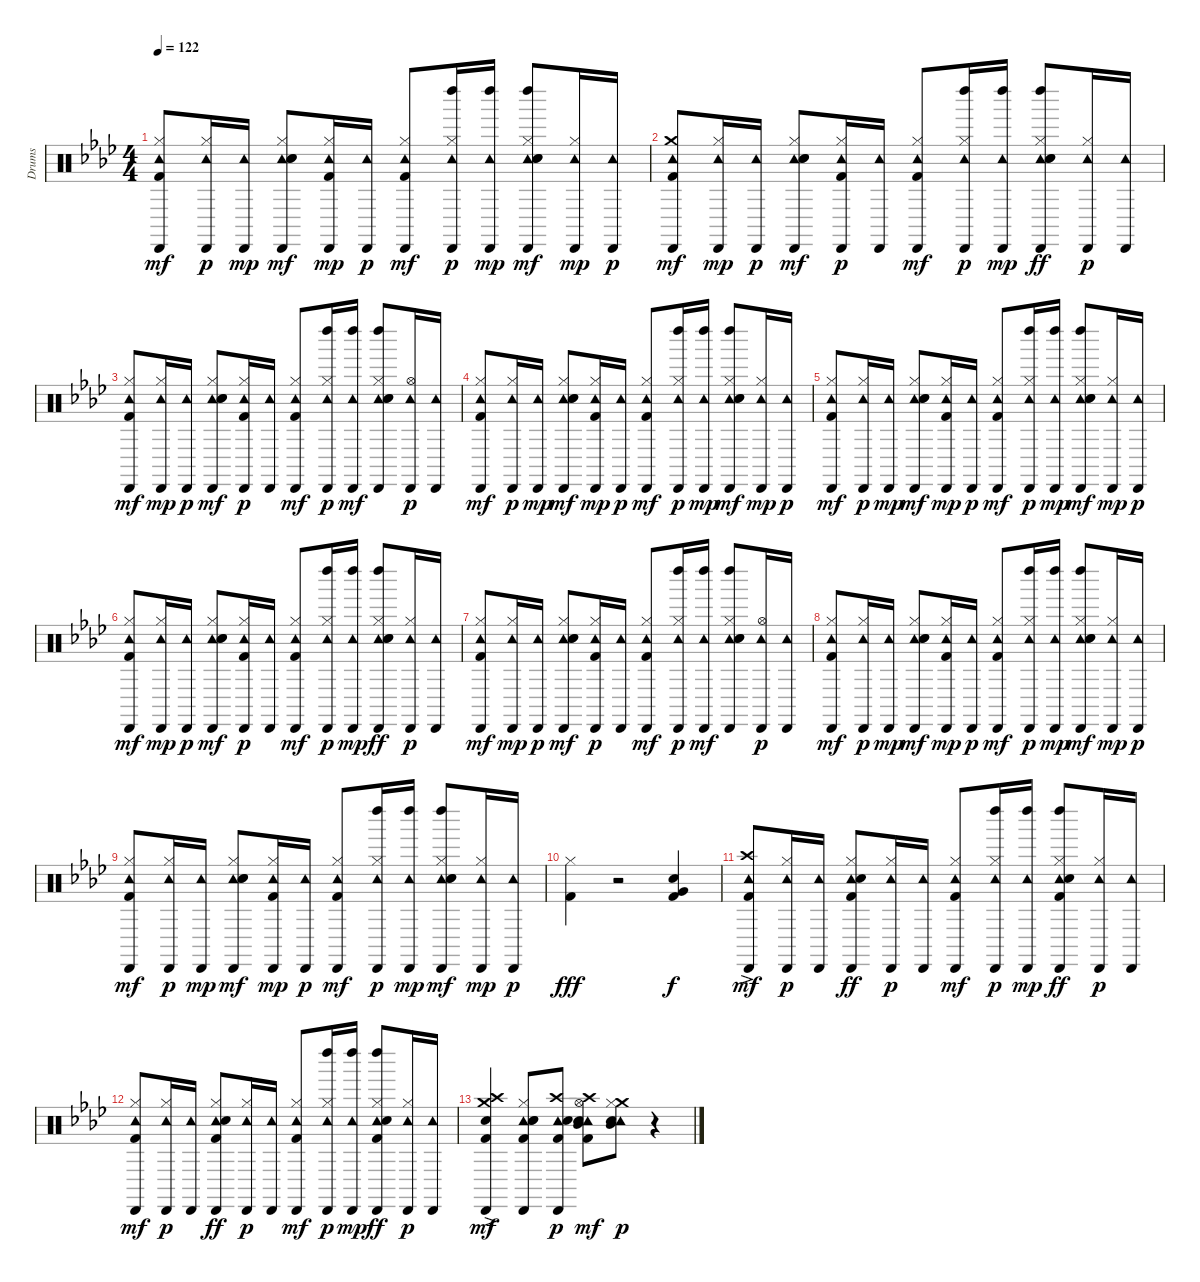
\track ("Drums" "Drums") {instrument percussion}
\staff {score}
\articulation defaults
\ts (4 4)
\tempo 122
\clef neutral
\ks ab
("Hi-Hat (closed)" "Cabasa (hit)" "Tambourine (hit)" "Kick (hit) 2").8{dy mf} ("Hi-Hat (closed)" "Cabasa (hit)" "Tambourine (hit)").16{dy p} ("Cabasa (hit)" "Tambourine (hit)").16{dy mp} ("Hi-Hat (closed)" "Cabasa (hit)" "Tambourine (hit)" "Electric Snare (hit)" "Hand Clap (hit)").8{dy mf} ("Hi-Hat (closed)" "Cabasa (hit)" "Tambourine (hit)" "Kick (hit) 2").16{dy mp} ("Cabasa (hit)" "Tambourine (hit)").16{dy p} ("Hi-Hat (closed)" "Cabasa (hit)" "Tambourine (hit)" "Kick (hit) 2").8{dy mf} ("Hi-Hat (closed)" "Cabasa (hit)" "Tambourine (hit)" "Left Maraca (hit)").16{dy p} ("Cabasa (hit)" "Tambourine (hit)" "Left Maraca (hit)").16{dy mp} ("Hi-Hat (closed)" "Cabasa (hit)" "Tambourine (hit)" "Left Maraca (hit)" "Electric Snare (hit)" "Hand Clap (hit)").8{dy mf} ("Hi-Hat (closed)" "Cabasa (hit)" "Tambourine (hit)").16{dy mp} ("Cabasa (hit)" "Tambourine (hit)").16{dy p} |
("Crash medium (hit)" "Cabasa (hit)" "Tambourine (hit)" "Kick (hit) 2").8{dy mf} ("Hi-Hat (closed)" "Cabasa (hit)" "Tambourine (hit)").16{dy mp} ("Cabasa (hit)" "Tambourine (hit)").16{dy p} ("Hi-Hat (closed)" "Cabasa (hit)" "Tambourine (hit)" "Hand Clap (hit)" "Electric Snare (hit)").8{dy mf} ("Hi-Hat (closed)" "Cabasa (hit)" "Tambourine (hit)" "Kick (hit) 2").16{dy p} ("Cabasa (hit)" "Tambourine (hit)").16 ("Hi-Hat (closed)" "Cabasa (hit)" "Tambourine (hit)" "Kick (hit) 2").8{dy mf} ("Hi-Hat (closed)" "Cabasa (hit)" "Tambourine (hit)" "Left Maraca (hit)").16{dy p} ("Cabasa (hit)" "Tambourine (hit)" "Left Maraca (hit)").16{dy mp} ("Hi-Hat (closed)" "Cabasa (hit)" "Tambourine (hit)" "Left Maraca (hit)" "Electric Snare (hit)" "Hand Clap (hit)").8{dy ff} ("Hi-Hat (closed)" "Cabasa (hit)" "Tambourine (hit)").16{dy p} ("Cabasa (hit)" "Tambourine (hit)").16 |
("Hi-Hat (closed)" "Cabasa (hit)" "Tambourine (hit)" "Kick (hit) 2").8{dy mf} ("Hi-Hat (closed)" "Cabasa (hit)" "Tambourine (hit)").16{dy mp} ("Cabasa (hit)" "Tambourine (hit)").16{dy p} ("Hi-Hat (closed)" "Cabasa (hit)" "Tambourine (hit)" "Hand Clap (hit)" "Electric Snare (hit)").8{dy mf} ("Hi-Hat (closed)" "Cabasa (hit)" "Tambourine (hit)" "Kick (hit) 2").16{dy p} ("Cabasa (hit)" "Tambourine (hit)").16 ("Hi-Hat (closed)" "Cabasa (hit)" "Tambourine (hit)" "Kick (hit) 2").8{dy mf} ("Hi-Hat (closed)" "Cabasa (hit)" "Tambourine (hit)" "Left Maraca (hit)").16{dy p} ("Cabasa (hit)" "Tambourine (hit)" "Left Maraca (hit)").16{dy mf} ("Hi-Hat (closed)" "Cabasa (hit)" "Tambourine (hit)" "Left Maraca (hit)" "Electric Snare (hit)" "Hand Clap (hit)").8 ("Hi-Hat (open)" "Cabasa (hit)" "Tambourine (hit)").16{dy p} ("Cabasa (hit)" "Tambourine (hit)").16 |
("Hi-Hat (closed)" "Cabasa (hit)" "Tambourine (hit)" "Kick (hit) 2").8{dy mf} ("Hi-Hat (closed)" "Cabasa (hit)" "Tambourine (hit)").16{dy p} ("Cabasa (hit)" "Tambourine (hit)").16{dy mp} ("Hi-Hat (closed)" "Cabasa (hit)" "Tambourine (hit)" "Electric Snare (hit)" "Hand Clap (hit)").8{dy mf} ("Hi-Hat (closed)" "Cabasa (hit)" "Tambourine (hit)" "Kick (hit) 2").16{dy mp} ("Cabasa (hit)" "Tambourine (hit)").16{dy p} ("Hi-Hat (closed)" "Cabasa (hit)" "Tambourine (hit)" "Kick (hit) 2").8{dy mf} ("Hi-Hat (closed)" "Cabasa (hit)" "Tambourine (hit)" "Left Maraca (hit)").16{dy p} ("Cabasa (hit)" "Tambourine (hit)" "Left Maraca (hit)").16{dy mp} ("Hi-Hat (closed)" "Cabasa (hit)" "Tambourine (hit)" "Left Maraca (hit)" "Electric Snare (hit)" "Hand Clap (hit)").8{dy mf} ("Hi-Hat (closed)" "Cabasa (hit)" "Tambourine (hit)").16{dy mp} ("Cabasa (hit)" "Tambourine (hit)").16{dy p} |
("Hi-Hat (closed)" "Cabasa (hit)" "Tambourine (hit)" "Kick (hit) 2").8{dy mf} ("Hi-Hat (closed)" "Cabasa (hit)" "Tambourine (hit)").16{dy p} ("Cabasa (hit)" "Tambourine (hit)").16{dy mp} ("Hi-Hat (closed)" "Cabasa (hit)" "Tambourine (hit)" "Electric Snare (hit)" "Hand Clap (hit)").8{dy mf} ("Hi-Hat (closed)" "Cabasa (hit)" "Tambourine (hit)" "Kick (hit) 2").16{dy mp} ("Cabasa (hit)" "Tambourine (hit)").16{dy p} ("Hi-Hat (closed)" "Cabasa (hit)" "Tambourine (hit)" "Kick (hit) 2").8{dy mf} ("Hi-Hat (closed)" "Cabasa (hit)" "Tambourine (hit)" "Left Maraca (hit)").16{dy p} ("Cabasa (hit)" "Tambourine (hit)" "Left Maraca (hit)").16{dy mp} ("Hi-Hat (closed)" "Cabasa (hit)" "Tambourine (hit)" "Left Maraca (hit)" "Electric Snare (hit)" "Hand Clap (hit)").8{dy mf} ("Hi-Hat (closed)" "Cabasa (hit)" "Tambourine (hit)").16{dy mp} ("Cabasa (hit)" "Tambourine (hit)").16{dy p} |
("Hi-Hat (closed)" "Cabasa (hit)" "Tambourine (hit)" "Kick (hit) 2").8{dy mf} ("Hi-Hat (closed)" "Cabasa (hit)" "Tambourine (hit)").16{dy mp} ("Cabasa (hit)" "Tambourine (hit)").16{dy p} ("Hi-Hat (closed)" "Cabasa (hit)" "Tambourine (hit)" "Hand Clap (hit)" "Electric Snare (hit)").8{dy mf} ("Hi-Hat (closed)" "Cabasa (hit)" "Tambourine (hit)" "Kick (hit) 2").16{dy p} ("Cabasa (hit)" "Tambourine (hit)").16 ("Hi-Hat (closed)" "Cabasa (hit)" "Tambourine (hit)" "Kick (hit) 2").8{dy mf} ("Hi-Hat (closed)" "Cabasa (hit)" "Tambourine (hit)" "Left Maraca (hit)").16{dy p} ("Cabasa (hit)" "Tambourine (hit)" "Left Maraca (hit)").16{dy mp} ("Hi-Hat (closed)" "Cabasa (hit)" "Tambourine (hit)" "Left Maraca (hit)" "Electric Snare (hit)" "Hand Clap (hit)").8{dy ff} ("Hi-Hat (closed)" "Cabasa (hit)" "Tambourine (hit)").16{dy p} ("Cabasa (hit)" "Tambourine (hit)").16 |
("Hi-Hat (closed)" "Cabasa (hit)" "Tambourine (hit)" "Kick (hit) 2").8{dy mf} ("Hi-Hat (closed)" "Cabasa (hit)" "Tambourine (hit)").16{dy mp} ("Cabasa (hit)" "Tambourine (hit)").16{dy p} ("Hi-Hat (closed)" "Cabasa (hit)" "Tambourine (hit)" "Hand Clap (hit)" "Electric Snare (hit)").8{dy mf} ("Hi-Hat (closed)" "Cabasa (hit)" "Tambourine (hit)" "Kick (hit) 2").16{dy p} ("Cabasa (hit)" "Tambourine (hit)").16 ("Hi-Hat (closed)" "Cabasa (hit)" "Tambourine (hit)" "Kick (hit) 2").8{dy mf} ("Hi-Hat (closed)" "Cabasa (hit)" "Tambourine (hit)" "Left Maraca (hit)").16{dy p} ("Cabasa (hit)" "Tambourine (hit)" "Left Maraca (hit)").16{dy mf} ("Hi-Hat (closed)" "Cabasa (hit)" "Tambourine (hit)" "Left Maraca (hit)" "Electric Snare (hit)" "Hand Clap (hit)").8 ("Hi-Hat (open)" "Cabasa (hit)" "Tambourine (hit)").16{dy p} ("Cabasa (hit)" "Tambourine (hit)").16 |
("Hi-Hat (closed)" "Cabasa (hit)" "Tambourine (hit)" "Kick (hit) 2").8{dy mf} ("Hi-Hat (closed)" "Cabasa (hit)" "Tambourine (hit)").16{dy p} ("Cabasa (hit)" "Tambourine (hit)").16{dy mp} ("Hi-Hat (closed)" "Cabasa (hit)" "Tambourine (hit)" "Electric Snare (hit)" "Hand Clap (hit)").8{dy mf} ("Hi-Hat (closed)" "Cabasa (hit)" "Tambourine (hit)" "Kick (hit) 2").16{dy mp} ("Cabasa (hit)" "Tambourine (hit)").16{dy p} ("Hi-Hat (closed)" "Cabasa (hit)" "Tambourine (hit)" "Kick (hit) 2").8{dy mf} ("Hi-Hat (closed)" "Cabasa (hit)" "Tambourine (hit)" "Left Maraca (hit)").16{dy p} ("Cabasa (hit)" "Tambourine (hit)" "Left Maraca (hit)").16{dy mp} ("Hi-Hat (closed)" "Cabasa (hit)" "Tambourine (hit)" "Left Maraca (hit)" "Electric Snare (hit)" "Hand Clap (hit)").8{dy mf} ("Hi-Hat (closed)" "Cabasa (hit)" "Tambourine (hit)").16{dy mp} ("Cabasa (hit)" "Tambourine (hit)").16{dy p} |
("Hi-Hat (closed)" "Cabasa (hit)" "Tambourine (hit)" "Kick (hit) 2").8{dy mf} ("Hi-Hat (closed)" "Cabasa (hit)" "Tambourine (hit)").16{dy p} ("Cabasa (hit)" "Tambourine (hit)").16{dy mp} ("Hi-Hat (closed)" "Cabasa (hit)" "Tambourine (hit)" "Electric Snare (hit)" "Hand Clap (hit)").8{dy mf} ("Hi-Hat (closed)" "Cabasa (hit)" "Tambourine (hit)" "Kick (hit) 2").16{dy mp} ("Cabasa (hit)" "Tambourine (hit)").16{dy p} ("Hi-Hat (closed)" "Cabasa (hit)" "Tambourine (hit)" "Kick (hit) 2").8{dy mf} ("Hi-Hat (closed)" "Cabasa (hit)" "Tambourine (hit)" "Left Maraca (hit)").16{dy p} ("Cabasa (hit)" "Tambourine (hit)" "Left Maraca (hit)").16{dy mp} ("Hi-Hat (closed)" "Cabasa (hit)" "Tambourine (hit)" "Left Maraca (hit)" "Electric Snare (hit)" "Hand Clap (hit)").8{dy mf} ("Hi-Hat (closed)" "Cabasa (hit)" "Tambourine (hit)").16{dy mp} ("Cabasa (hit)" "Tambourine (hit)").16{dy p} |
("Hi-Hat (closed)" "Kick (hit) 2").4{dy fff} r.2 ("Very Low Tom (hit)" "Electric Snare (hit)" "Kick (hit) 2").4{dy f} |
("Crash high (hit)"{ac} "Cabasa (hit)" "Tambourine (hit)" "Kick (hit) 2").8{dy mf} ("Hi-Hat (closed)" "Cabasa (hit)" "Tambourine (hit)").16{dy p} ("Cabasa (hit)" "Tambourine (hit)").16 ("Hi-Hat (closed)" "Cabasa (hit)" "Tambourine (hit)" "Hand Clap (hit)" "Kick (hit) 2").8{dy ff} ("Hi-Hat (closed)" "Cabasa (hit)" "Tambourine (hit)").16{dy p} ("Cabasa (hit)" "Tambourine (hit)").16 ("Hi-Hat (closed)" "Cabasa (hit)" "Tambourine (hit)" "Kick (hit) 2").8{dy mf} ("Hi-Hat (closed)" "Cabasa (hit)" "Tambourine (hit)" "Left Maraca (hit)").16{dy p} ("Cabasa (hit)" "Tambourine (hit)" "Left Maraca (hit)").16{dy mp} ("Hi-Hat (closed)" "Cabasa (hit)" "Tambourine (hit)" "Left Maraca (hit)" "Hand Clap (hit)" "Kick (hit) 2").8{dy ff} ("Hi-Hat (closed)" "Cabasa (hit)" "Tambourine (hit)").16{dy p} ("Cabasa (hit)" "Tambourine (hit)").16 |
("Hi-Hat (closed)" "Cabasa (hit)" "Tambourine (hit)" "Kick (hit) 2").8{dy mf} ("Hi-Hat (closed)" "Cabasa (hit)" "Tambourine (hit)").16{dy p} ("Cabasa (hit)" "Tambourine (hit)").16 ("Hi-Hat (closed)" "Cabasa (hit)" "Tambourine (hit)" "Hand Clap (hit)" "Kick (hit) 2").8{dy ff} ("Hi-Hat (closed)" "Cabasa (hit)" "Tambourine (hit)").16{dy p} ("Cabasa (hit)" "Tambourine (hit)").16 ("Hi-Hat (closed)" "Cabasa (hit)" "Tambourine (hit)" "Kick (hit) 2").8{dy mf} ("Hi-Hat (closed)" "Cabasa (hit)" "Tambourine (hit)" "Left Maraca (hit)").16{dy p} ("Cabasa (hit)" "Tambourine (hit)" "Left Maraca (hit)").16{dy mp} ("Hi-Hat (closed)" "Cabasa (hit)" "Tambourine (hit)" "Left Maraca (hit)" "Hand Clap (hit)" "Kick (hit) 2").8{dy ff} ("Hi-Hat (closed)" "Cabasa (hit)" "Tambourine (hit)").16{dy p} ("Cabasa (hit)" "Tambourine (hit)").16 |
("Crash medium (hit)"{ac} "Crash high (hit)"{ac} "Cabasa (hit)" "Electric Snare (hit)" "Kick (hit) 2").4{dy mf} ("Hi-Hat (closed)" "Cabasa (hit)" "Tambourine (hit)" "Hand Clap (hit)" "Electric Snare (hit)" "Kick (hit) 2").8 ("Crash high (hit)" "Cabasa (hit)" "Tambourine (hit)" "Electric Snare (hit)" "Kick (hit) 2").8{dy p} ("Crash high (hit)" "Hi-Hat (open)" "Tambourine (hit)" "Mid Tom (hit)" "Electric Snare (hit)" "Kick (hit) 2").8{dy mf} ("Crash medium (hit)" "Hi-Hat (closed)" "Tambourine (hit)" "Mid Tom (hit)" "Hand Clap (hit)").8{dy p} r.4
